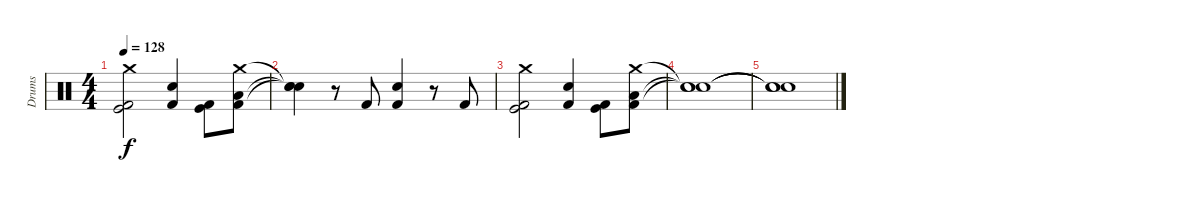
\track ("Drums" "Drums") {instrument percussion}
\staff {score}
\articulation defaults
\ts (4 4)
\tempo 128
\clef neutral
\ks c
("Crash medium (hit)" "Kick (hit)" "Kick (hit) 2").2{dy f} ("Snare (hit) 2" "Kick (hit) 2").4 ("Kick (hit)" "Kick (hit) 2").8 ("Crash medium (hit)" "Low Floor Tom (hit)" "Kick (hit) 2").8 |
("Snare (hit)"{t} "Snare (hit)"{t} "Snare (hit)"{t}).4 r.8 "Kick (hit) 2".8 ("Snare (hit) 2" "Kick (hit) 2").4 r.8 "Kick (hit) 2".8 |
("Crash medium (hit)" "Kick (hit)" "Kick (hit) 2").2 ("Snare (hit) 2" "Kick (hit) 2").4 ("Kick (hit)" "Kick (hit) 2").8 ("Crash medium (hit)" "Low Floor Tom (hit)" "Kick (hit) 2").8 |
("Snare (hit)"{t} "Snare (hit)"{t} "Snare (hit)"{t}).1 |
("Snare (hit)"{t} "Snare (hit)"{t} "Snare (hit)"{t}).1
